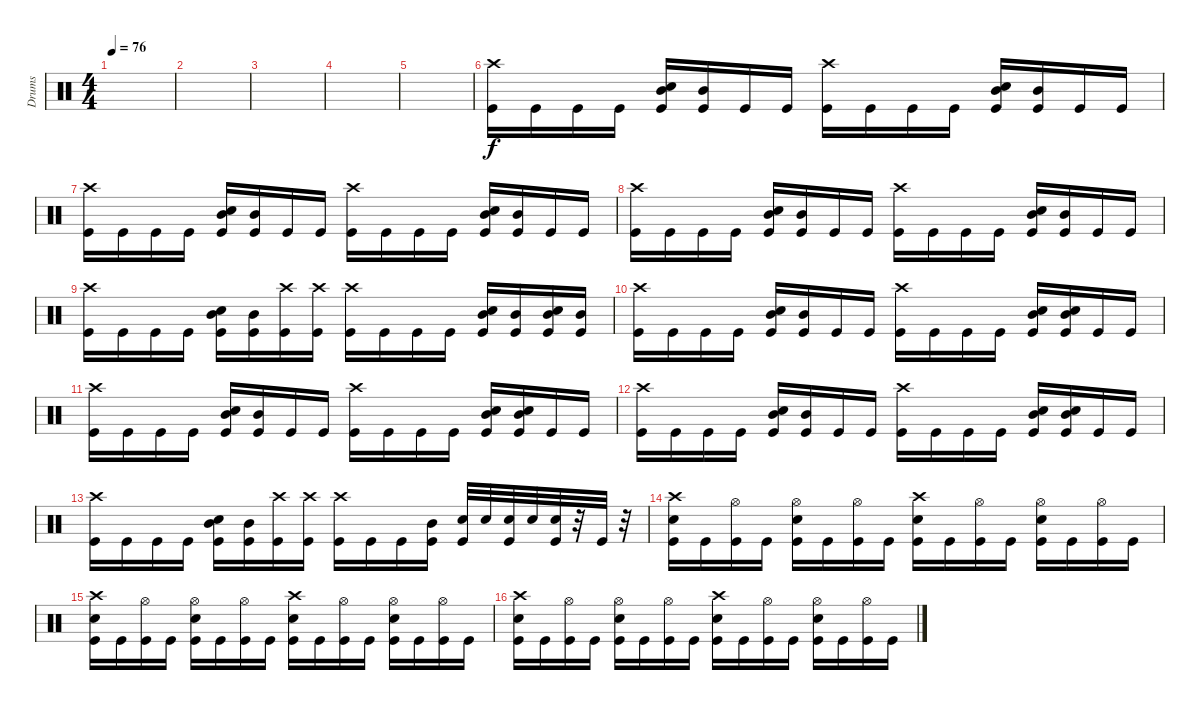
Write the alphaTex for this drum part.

\track ("Drums" "Drums") {instrument percussion}
\staff {score}
\articulation defaults
\ts (4 4)
\tempo 76
\clef neutral
\ks c
|
|
|
|
|
("Crash high (hit)" "Kick (hit)").16 "Kick (hit)".16 "Kick (hit)".16 "Kick (hit)".16 ("Snare (hit) 2" "Mid Tom (hit)" "Kick (hit)").16 ("Mid Tom (hit)" "Kick (hit)").16 "Kick (hit)".16 "Kick (hit)".16 ("Crash high (hit)" "Kick (hit)").16 "Kick (hit)".16 "Kick (hit)".16 "Kick (hit)".16 ("Snare (hit) 2" "Mid Tom (hit)" "Kick (hit)").16 ("Mid Tom (hit)" "Kick (hit)").16 "Kick (hit)".16 "Kick (hit)".16 |
("Crash high (hit)" "Kick (hit)").16 "Kick (hit)".16 "Kick (hit)".16 "Kick (hit)".16 ("Snare (hit) 2" "Mid Tom (hit)" "Kick (hit)").16 ("Mid Tom (hit)" "Kick (hit)").16 "Kick (hit)".16 "Kick (hit)".16 ("Crash high (hit)" "Kick (hit)").16 "Kick (hit)".16 "Kick (hit)".16 "Kick (hit)".16 ("Snare (hit) 2" "Mid Tom (hit)" "Kick (hit)").16 ("Mid Tom (hit)" "Kick (hit)").16 "Kick (hit)".16 "Kick (hit)".16 |
("Crash high (hit)" "Kick (hit)").16 "Kick (hit)".16 "Kick (hit)".16 "Kick (hit)".16 ("Snare (hit) 2" "Mid Tom (hit)" "Kick (hit)").16 ("Mid Tom (hit)" "Kick (hit)").16 "Kick (hit)".16 "Kick (hit)".16 ("Crash high (hit)" "Kick (hit)").16 "Kick (hit)".16 "Kick (hit)".16 "Kick (hit)".16 ("Snare (hit) 2" "Mid Tom (hit)" "Kick (hit)").16 ("Mid Tom (hit)" "Kick (hit)").16 "Kick (hit)".16 "Kick (hit)".16 |
("Crash high (hit)" "Kick (hit)").16 "Kick (hit)".16 "Kick (hit)".16 "Kick (hit)".16 ("Snare (hit) 2" "Mid Tom (hit)" "Kick (hit)").16 ("Mid Tom (hit)" "Kick (hit)").16 ("Crash high (hit)" "Kick (hit)").16 ("Crash high (hit)" "Kick (hit)").16 ("Crash high (hit)" "Kick (hit)").16 "Kick (hit)".16 "Kick (hit)".16 "Kick (hit)".16 ("Snare (hit) 2" "Mid Tom (hit)" "Kick (hit)").16 ("Mid Tom (hit)" "Kick (hit)").16 ("Snare (hit) 2" "Mid Tom (hit)" "Kick (hit)").16 ("Mid Tom (hit)" "Kick (hit)").16 |
("Crash high (hit)" "Kick (hit)").16 "Kick (hit)".16 "Kick (hit)".16 "Kick (hit)".16 ("Snare (hit) 2" "Mid Tom (hit)" "Kick (hit)").16 ("Mid Tom (hit)" "Kick (hit)").16 "Kick (hit)".16 "Kick (hit)".16 ("Crash high (hit)" "Kick (hit)").16 "Kick (hit)".16 "Kick (hit)".16 "Kick (hit)".16 ("Snare (hit) 2" "Mid Tom (hit)" "Kick (hit)").16 ("Snare (hit) 2" "Mid Tom (hit)" "Kick (hit)").16 "Kick (hit)".16 "Kick (hit)".16 |
("Crash high (hit)" "Kick (hit)").16 "Kick (hit)".16 "Kick (hit)".16 "Kick (hit)".16 ("Snare (hit) 2" "Mid Tom (hit)" "Kick (hit)").16 ("Mid Tom (hit)" "Kick (hit)").16 "Kick (hit)".16 "Kick (hit)".16 ("Crash high (hit)" "Kick (hit)").16 "Kick (hit)".16 "Kick (hit)".16 "Kick (hit)".16 ("Snare (hit) 2" "Mid Tom (hit)" "Kick (hit)").16 ("Snare (hit) 2" "Mid Tom (hit)" "Kick (hit)").16 "Kick (hit)".16 "Kick (hit)".16 |
("Crash high (hit)" "Kick (hit)").16 "Kick (hit)".16 "Kick (hit)".16 "Kick (hit)".16 ("Snare (hit) 2" "Mid Tom (hit)" "Kick (hit)").16 ("Mid Tom (hit)" "Kick (hit)").16 "Kick (hit)".16 "Kick (hit)".16 ("Crash high (hit)" "Kick (hit)").16 "Kick (hit)".16 "Kick (hit)".16 "Kick (hit)".16 ("Snare (hit) 2" "Mid Tom (hit)" "Kick (hit)").16 ("Snare (hit) 2" "Mid Tom (hit)" "Kick (hit)").16 "Kick (hit)".16 "Kick (hit)".16 |
("Crash high (hit)" "Kick (hit)").16 "Kick (hit)".16 "Kick (hit)".16 "Kick (hit)".16 ("Snare (hit) 2" "Mid Tom (hit)" "Kick (hit)").16 ("Mid Tom (hit)" "Kick (hit)").16 ("Crash high (hit)" "Kick (hit)").16 ("Crash high (hit)" "Kick (hit)").16 ("Crash high (hit)" "Kick (hit)").16 "Kick (hit)".16 "Kick (hit)".16 ("Mid Tom (hit)" "Kick (hit)").16 ("Snare (hit) 2" "Kick (hit)").32 "Snare (hit) 2".32 ("Snare (hit) 2" "Kick (hit)").32 "Snare (hit) 2".32 ("Snare (hit) 2" "Kick (hit)").32 r.32 "Kick (hit)".32 r.32 |
("Crash high (hit)" "Snare (hit) 2" "Kick (hit)").16 "Kick (hit)".16 ("Hi-Hat (open)" "Kick (hit)").16 "Kick (hit)".16 ("Hi-Hat (open)" "Snare (hit) 2" "Kick (hit)").16 "Kick (hit)".16 ("Hi-Hat (open)" "Kick (hit)").16 "Kick (hit)".16 ("Crash high (hit)" "Snare (hit) 2" "Kick (hit)").16 "Kick (hit)".16 ("Hi-Hat (open)" "Kick (hit)").16 "Kick (hit)".16 ("Hi-Hat (open)" "Snare (hit) 2" "Kick (hit)").16 "Kick (hit)".16 ("Hi-Hat (open)" "Kick (hit)").16 "Kick (hit)".16 |
("Crash high (hit)" "Snare (hit) 2" "Kick (hit)").16 "Kick (hit)".16 ("Hi-Hat (open)" "Kick (hit)").16 "Kick (hit)".16 ("Hi-Hat (open)" "Snare (hit) 2" "Kick (hit)").16 "Kick (hit)".16 ("Hi-Hat (open)" "Kick (hit)").16 "Kick (hit)".16 ("Crash high (hit)" "Snare (hit) 2" "Kick (hit)").16 "Kick (hit)".16 ("Hi-Hat (open)" "Kick (hit)").16 "Kick (hit)".16 ("Hi-Hat (open)" "Snare (hit) 2" "Kick (hit)").16 "Kick (hit)".16 ("Hi-Hat (open)" "Kick (hit)").16 "Kick (hit)".16 |
("Crash high (hit)" "Snare (hit) 2" "Kick (hit)").16 "Kick (hit)".16 ("Hi-Hat (open)" "Kick (hit)").16 "Kick (hit)".16 ("Hi-Hat (open)" "Snare (hit) 2" "Kick (hit)").16 "Kick (hit)".16 ("Hi-Hat (open)" "Kick (hit)").16 "Kick (hit)".16 ("Crash high (hit)" "Snare (hit) 2" "Kick (hit)").16 "Kick (hit)".16 ("Hi-Hat (open)" "Kick (hit)").16 "Kick (hit)".16 ("Hi-Hat (open)" "Snare (hit) 2" "Kick (hit)").16 "Kick (hit)".16 ("Hi-Hat (open)" "Kick (hit)").16 "Kick (hit)".16
